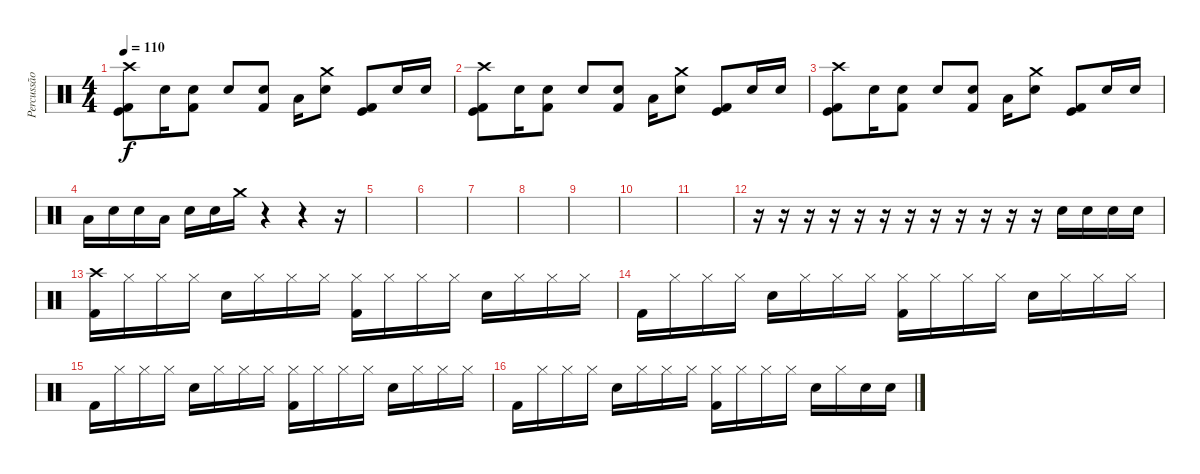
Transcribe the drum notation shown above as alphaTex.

\track ("Percussão" "Percussão") {instrument percussion}
\staff {score}
\articulation defaults
\ts (4 4)
\tempo 110
\clef neutral
\ks c
("Crash high (hit)" "Kick (hit)" "Kick (hit) 2").8{dy f} "Electric Snare (hit)".16 ("Snare (hit) 2" "Kick (hit) 2").8 "Snare (hit) 2".8 ("Snare (hit) 2" "Kick (hit) 2").8 "Low Tom (hit)".16 ("Crash medium (hit)" "Electric Snare (hit)").8 ("Kick (hit)" "Kick (hit) 2").8 "Electric Snare (hit)".16 "Electric Snare (hit)".16 |
("Crash high (hit)" "Kick (hit)" "Kick (hit) 2").8 "Electric Snare (hit)".16 ("Snare (hit) 2" "Kick (hit) 2").8 "Snare (hit) 2".8 ("Snare (hit) 2" "Kick (hit) 2").8 "Low Tom (hit)".16 ("Crash medium (hit)" "Electric Snare (hit)").8 ("Kick (hit)" "Kick (hit) 2").8 "Electric Snare (hit)".16 "Electric Snare (hit)".16 |
("Crash high (hit)" "Kick (hit)" "Kick (hit) 2").8 "Electric Snare (hit)".16 ("Snare (hit) 2" "Kick (hit) 2").8 "Snare (hit) 2".8 ("Snare (hit) 2" "Kick (hit) 2").8 "Low Tom (hit)".16 ("Crash medium (hit)" "Electric Snare (hit)").8 ("Kick (hit)" "Kick (hit) 2").8 "Electric Snare (hit)".16 "Electric Snare (hit)".16 |
"Low Tom (hit)".16 "Electric Snare (hit)".16 "Electric Snare (hit)".16 "Low Tom (hit)".16 "Electric Snare (hit)".16 "Electric Snare (hit)".16 "Crash medium (hit)".16 r.4 r.4 r.16 |
|
|
|
|
|
|
|
r.16 r.16 r.16 r.16 r.16 r.16 r.16 r.16 r.16 r.16 r.16 r.16 "Electric Snare (hit)".16 "Electric Snare (hit)".16 "Electric Snare (hit)".16 "Electric Snare (hit)".16 |
("Crash high (hit)" "Kick (hit) 2").16 "Hi-Hat (closed)".16 "Hi-Hat (closed)".16 "Hi-Hat (closed)".16 "Electric Snare (hit)".16 "Hi-Hat (closed)".16 "Hi-Hat (closed)".16 "Hi-Hat (closed)".16 ("Hi-Hat (closed)" "Kick (hit) 2").16 "Hi-Hat (closed)".16 "Hi-Hat (closed)".16 "Hi-Hat (closed)".16 "Electric Snare (hit)".16 "Hi-Hat (closed)".16 "Hi-Hat (closed)".16 "Hi-Hat (closed)".16 |
"Kick (hit) 2".16 "Hi-Hat (closed)".16 "Hi-Hat (closed)".16 "Hi-Hat (closed)".16 "Electric Snare (hit)".16 "Hi-Hat (closed)".16 "Hi-Hat (closed)".16 "Hi-Hat (closed)".16 ("Hi-Hat (closed)" "Kick (hit) 2").16 "Hi-Hat (closed)".16 "Hi-Hat (closed)".16 "Hi-Hat (closed)".16 "Electric Snare (hit)".16 "Hi-Hat (closed)".16 "Hi-Hat (closed)".16 "Hi-Hat (closed)".16 |
"Kick (hit) 2".16 "Hi-Hat (closed)".16 "Hi-Hat (closed)".16 "Hi-Hat (closed)".16 "Electric Snare (hit)".16 "Hi-Hat (closed)".16 "Hi-Hat (closed)".16 "Hi-Hat (closed)".16 ("Hi-Hat (closed)" "Kick (hit) 2").16 "Hi-Hat (closed)".16 "Hi-Hat (closed)".16 "Hi-Hat (closed)".16 "Electric Snare (hit)".16 "Hi-Hat (closed)".16 "Hi-Hat (closed)".16 "Hi-Hat (closed)".16 |
"Kick (hit) 2".16 "Hi-Hat (closed)".16 "Hi-Hat (closed)".16 "Hi-Hat (closed)".16 "Electric Snare (hit)".16 "Hi-Hat (closed)".16 "Hi-Hat (closed)".16 "Hi-Hat (closed)".16 ("Hi-Hat (closed)" "Kick (hit) 2").16 "Hi-Hat (closed)".16 "Hi-Hat (closed)".16 "Hi-Hat (closed)".16 "Electric Snare (hit)".16 "Hi-Hat (closed)".16 "Electric Snare (hit)".16 "Electric Snare (hit)".16
